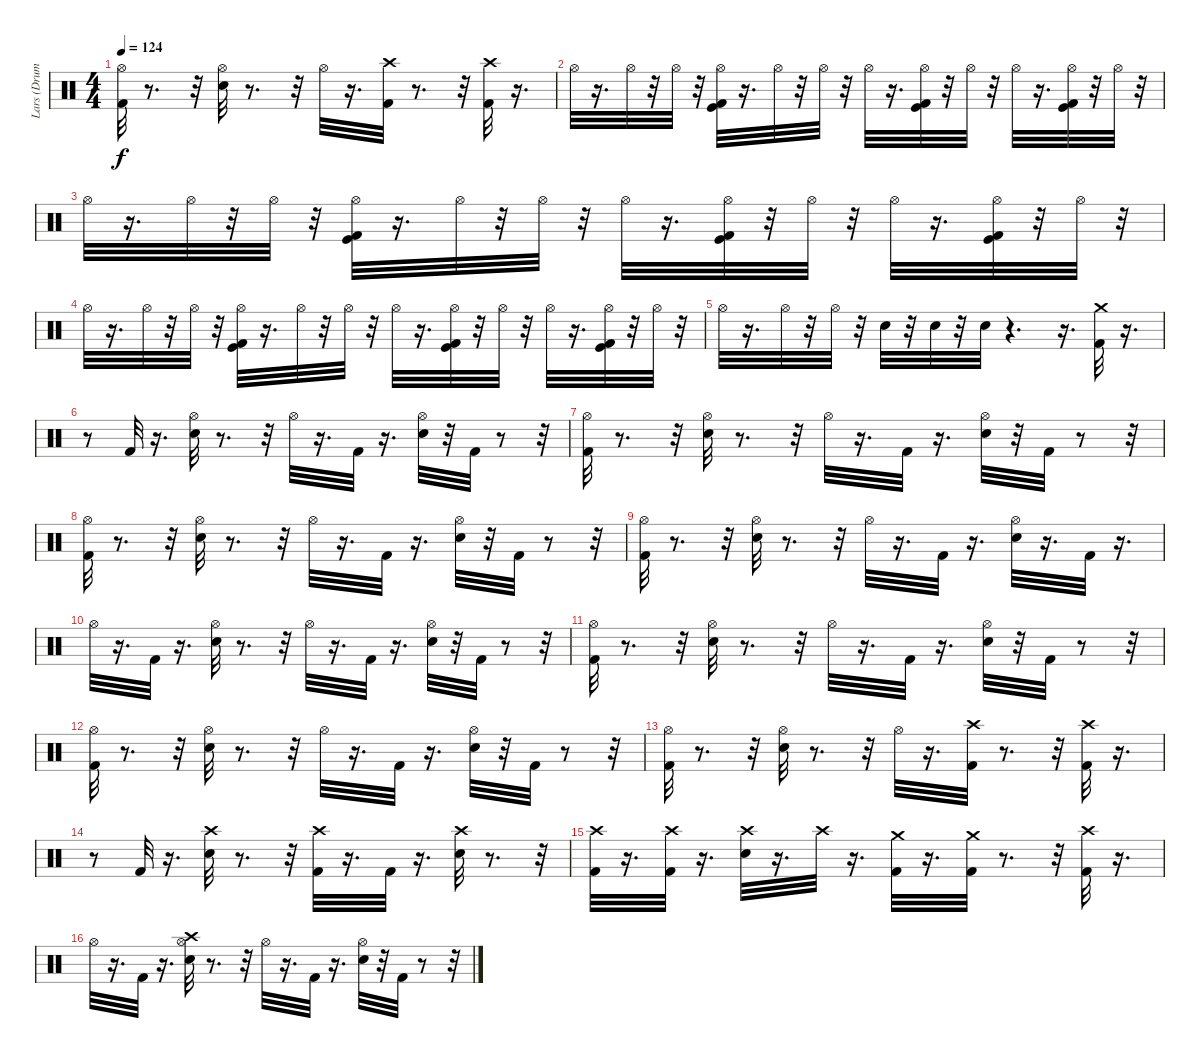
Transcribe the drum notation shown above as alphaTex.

\track ("Lars (Drums)" "Lars (Drum") {instrument percussion}
\staff {score}
\articulation defaults
\ts (4 4)
\tempo 124
\clef neutral
\ks c
("Kick (hit) 2" "Hi-Hat (open)").32{dy f} r.8{d} r.32 ("Electric Snare (hit)" "Hi-Hat (open)").32 r.8{d} r.32 "Hi-Hat (open)".32 r.16{d} ("Crash high (hit)" "Kick (hit) 2").32 r.8{d} r.32 ("Crash high (hit)" "Kick (hit) 2").32 r.16{d} |
"Hi-Hat (open)".32 r.16{d} "Hi-Hat (open)".32 r.32 "Hi-Hat (open)".32 r.32 ("Hi-Hat (open)" "Kick (hit) 2" "Kick (hit)").32 r.16{d} "Hi-Hat (open)".32 r.32 "Hi-Hat (open)".32 r.32 "Hi-Hat (open)".32 r.16{d} ("Hi-Hat (open)" "Kick (hit) 2" "Kick (hit)").32 r.32 "Hi-Hat (open)".32 r.32 "Hi-Hat (open)".32 r.16{d} ("Hi-Hat (open)" "Kick (hit)" "Kick (hit) 2").32 r.32 "Hi-Hat (open)".32 r.32 |
"Hi-Hat (open)".32 r.16{d} "Hi-Hat (open)".32 r.32 "Hi-Hat (open)".32 r.32 ("Hi-Hat (open)" "Kick (hit) 2" "Kick (hit)").32 r.16{d} "Hi-Hat (open)".32 r.32 "Hi-Hat (open)".32 r.32 "Hi-Hat (open)".32 r.16{d} ("Hi-Hat (open)" "Kick (hit) 2" "Kick (hit)").32 r.32 "Hi-Hat (open)".32 r.32 "Hi-Hat (open)".32 r.16{d} ("Hi-Hat (open)" "Kick (hit)" "Kick (hit) 2").32 r.32 "Hi-Hat (open)".32 r.32 |
"Hi-Hat (open)".32 r.16{d} "Hi-Hat (open)".32 r.32 "Hi-Hat (open)".32 r.32 ("Hi-Hat (open)" "Kick (hit) 2" "Kick (hit)").32 r.16{d} "Hi-Hat (open)".32 r.32 "Hi-Hat (open)".32 r.32 "Hi-Hat (open)".32 r.16{d} ("Hi-Hat (open)" "Kick (hit) 2" "Kick (hit)").32 r.32 "Hi-Hat (open)".32 r.32 "Hi-Hat (open)".32 r.16{d} ("Hi-Hat (open)" "Kick (hit)" "Kick (hit) 2").32 r.32 "Hi-Hat (open)".32 r.32 |
"Hi-Hat (open)".32 r.16{d} "Hi-Hat (open)".32 r.32 "Hi-Hat (open)".32 r.32 "Electric Snare (hit)".32 r.32 "Electric Snare (hit)".32 r.32 "Electric Snare (hit)".32 r.4{d} r.16{d} ("Crash medium (hit)" "Kick (hit) 2").32 r.16{d} |
r.8 "Kick (hit) 2".32 r.16{d} ("Hi-Hat (open)" "Electric Snare (hit)").32 r.8{d} r.32 "Hi-Hat (open)".32 r.16{d} "Kick (hit) 2".32 r.16{d} ("Electric Snare (hit)" "Hi-Hat (open)").32 r.32 "Kick (hit) 2".32 r.8 r.32 |
("Kick (hit) 2" "Hi-Hat (open)").32 r.8{d} r.32 ("Electric Snare (hit)" "Hi-Hat (open)").32 r.8{d} r.32 "Hi-Hat (open)".32 r.16{d} "Kick (hit) 2".32 r.16{d} ("Electric Snare (hit)" "Hi-Hat (open)").32 r.32 "Kick (hit) 2".32 r.8 r.32 |
("Kick (hit) 2" "Hi-Hat (open)").32 r.8{d} r.32 ("Electric Snare (hit)" "Hi-Hat (open)").32 r.8{d} r.32 "Hi-Hat (open)".32 r.16{d} "Kick (hit) 2".32 r.16{d} ("Electric Snare (hit)" "Hi-Hat (open)").32 r.32 "Kick (hit) 2".32 r.8 r.32 |
("Kick (hit) 2" "Hi-Hat (open)").32 r.8{d} r.32 ("Electric Snare (hit)" "Hi-Hat (open)").32 r.8{d} r.32 "Hi-Hat (open)".32 r.16{d} "Kick (hit) 2".32 r.16{d} ("Electric Snare (hit)" "Hi-Hat (open)").32 r.16{d} "Kick (hit) 2".32 r.16{d} |
"Hi-Hat (open)".32 r.16{d} "Kick (hit) 2".32 r.16{d} ("Hi-Hat (open)" "Electric Snare (hit)").32 r.8{d} r.32 "Hi-Hat (open)".32 r.16{d} "Kick (hit) 2".32 r.16{d} ("Electric Snare (hit)" "Hi-Hat (open)").32 r.32 "Kick (hit) 2".32 r.8 r.32 |
("Kick (hit) 2" "Hi-Hat (open)").32 r.8{d} r.32 ("Electric Snare (hit)" "Hi-Hat (open)").32 r.8{d} r.32 "Hi-Hat (open)".32 r.16{d} "Kick (hit) 2".32 r.16{d} ("Electric Snare (hit)" "Hi-Hat (open)").32 r.32 "Kick (hit) 2".32 r.8 r.32 |
("Kick (hit) 2" "Hi-Hat (open)").32 r.8{d} r.32 ("Electric Snare (hit)" "Hi-Hat (open)").32 r.8{d} r.32 "Hi-Hat (open)".32 r.16{d} "Kick (hit) 2".32 r.16{d} ("Electric Snare (hit)" "Hi-Hat (open)").32 r.32 "Kick (hit) 2".32 r.8 r.32 |
("Kick (hit) 2" "Hi-Hat (open)").32 r.8{d} r.32 ("Electric Snare (hit)" "Hi-Hat (open)").32 r.8{d} r.32 "Hi-Hat (open)".32 r.16{d} ("Crash high (hit)" "Kick (hit) 2").32 r.8{d} r.32 ("Crash high (hit)" "Kick (hit) 2").32 r.16{d} |
r.8 "Kick (hit) 2".32 r.16{d} ("Electric Snare (hit)" "Crash high (hit)").32 r.8{d} r.32 ("Kick (hit) 2" "Crash high (hit)").32 r.16{d} "Kick (hit) 2".32 r.16{d} ("Electric Snare (hit)" "Crash high (hit)").32 r.8{d} r.32 |
("Kick (hit) 2" "Crash high (hit)").32 r.16{d} ("Crash high (hit)" "Kick (hit) 2").32 r.16{d} ("Electric Snare (hit)" "Crash high (hit)").32 r.16{d} "Crash high (hit)".32 r.16{d} ("Crash medium (hit)" "Kick (hit) 2").32 r.16{d} ("Crash medium (hit)" "Kick (hit) 2").32 r.8{d} r.32 ("Kick (hit) 2" "Crash high (hit)").32 r.16{d} |
"Hi-Hat (open)".32 r.16{d} "Kick (hit) 2".32 r.16{d} ("Hi-Hat (open)" "Electric Snare (hit)" "Crash high (hit)").32 r.8{d} r.32 "Hi-Hat (open)".32 r.16{d} "Kick (hit) 2".32 r.16{d} ("Electric Snare (hit)" "Hi-Hat (open)").32 r.32 "Kick (hit) 2".32 r.8 r.32
